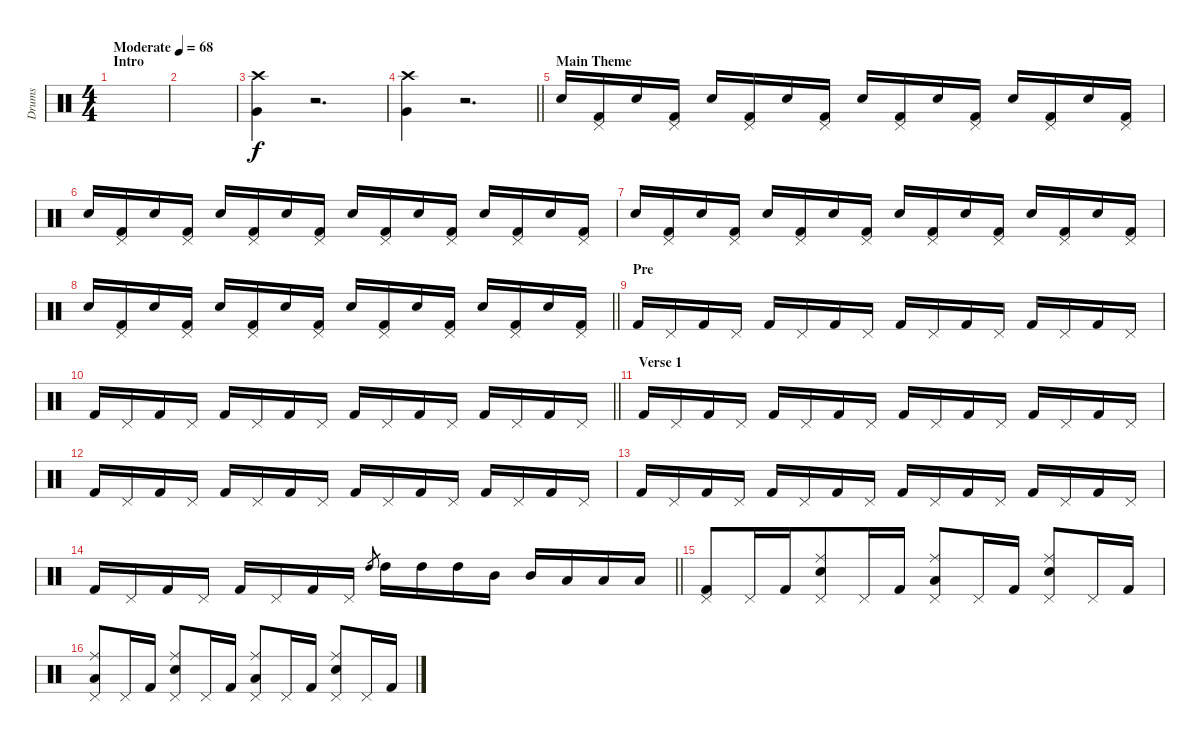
\track ("Drums" "Drums") {instrument percussion}
\staff {score}
\articulation defaults
\ts (4 4)
\section ("" "Intro")
\tempo (68 "Moderate")
\clef neutral
\ks c
|
|
("Very Low Tom (hit)" "Crash high (hit)").4 r.2{d} |
\barLineRight lightlight
("Very Low Tom (hit)" "Crash high (hit)").4 r.2{d} |
\section ("" "Main Theme")
"Snare (hit) 2".16 ("Pedal Hi-Hat (hit)" "Kick (hit) 2").16 "Snare (hit) 2".16 ("Pedal Hi-Hat (hit)" "Kick (hit) 2").16 "Snare (hit) 2".16 ("Pedal Hi-Hat (hit)" "Kick (hit) 2").16 "Snare (hit) 2".16 ("Pedal Hi-Hat (hit)" "Kick (hit) 2").16 "Snare (hit) 2".16 ("Pedal Hi-Hat (hit)" "Kick (hit) 2").16 "Snare (hit) 2".16 ("Pedal Hi-Hat (hit)" "Kick (hit) 2").16 "Snare (hit) 2".16 ("Pedal Hi-Hat (hit)" "Kick (hit) 2").16 "Snare (hit) 2".16 ("Pedal Hi-Hat (hit)" "Kick (hit) 2").16 |
"Snare (hit) 2".16 ("Pedal Hi-Hat (hit)" "Kick (hit) 2").16 "Snare (hit) 2".16 ("Pedal Hi-Hat (hit)" "Kick (hit) 2").16 "Snare (hit) 2".16 ("Pedal Hi-Hat (hit)" "Kick (hit) 2").16 "Snare (hit) 2".16 ("Pedal Hi-Hat (hit)" "Kick (hit) 2").16 "Snare (hit) 2".16 ("Pedal Hi-Hat (hit)" "Kick (hit) 2").16 "Snare (hit) 2".16 ("Pedal Hi-Hat (hit)" "Kick (hit) 2").16 "Snare (hit) 2".16 ("Pedal Hi-Hat (hit)" "Kick (hit) 2").16 "Snare (hit) 2".16 ("Pedal Hi-Hat (hit)" "Kick (hit) 2").16 |
"Snare (hit) 2".16 ("Pedal Hi-Hat (hit)" "Kick (hit) 2").16 "Snare (hit) 2".16 ("Pedal Hi-Hat (hit)" "Kick (hit) 2").16 "Snare (hit) 2".16 ("Pedal Hi-Hat (hit)" "Kick (hit) 2").16 "Snare (hit) 2".16 ("Pedal Hi-Hat (hit)" "Kick (hit) 2").16 "Snare (hit) 2".16 ("Pedal Hi-Hat (hit)" "Kick (hit) 2").16 "Snare (hit) 2".16 ("Pedal Hi-Hat (hit)" "Kick (hit) 2").16 "Snare (hit) 2".16 ("Pedal Hi-Hat (hit)" "Kick (hit) 2").16 "Snare (hit) 2".16 ("Pedal Hi-Hat (hit)" "Kick (hit) 2").16 |
\barLineRight lightlight "Snare (hit) 2".16
("Pedal Hi-Hat (hit)" "Kick (hit) 2").16 "Snare (hit) 2".16 ("Pedal Hi-Hat (hit)" "Kick (hit) 2").16 "Snare (hit) 2".16 ("Pedal Hi-Hat (hit)" "Kick (hit) 2").16 "Snare (hit) 2".16 ("Pedal Hi-Hat (hit)" "Kick (hit) 2").16 "Snare (hit) 2".16 ("Pedal Hi-Hat (hit)" "Kick (hit) 2").16 "Snare (hit) 2".16 ("Pedal Hi-Hat (hit)" "Kick (hit) 2").16 "Snare (hit) 2".16 ("Pedal Hi-Hat (hit)" "Kick (hit) 2").16 "Snare (hit) 2".16 ("Pedal Hi-Hat (hit)" "Kick (hit) 2").16 |
\section ("" "Pre")
"Kick (hit) 2".16 "Pedal Hi-Hat (hit)".16 "Kick (hit) 2".16 "Pedal Hi-Hat (hit)".16 "Kick (hit) 2".16 "Pedal Hi-Hat (hit)".16 "Kick (hit) 2".16 "Pedal Hi-Hat (hit)".16 "Kick (hit) 2".16 "Pedal Hi-Hat (hit)".16 "Kick (hit) 2".16 "Pedal Hi-Hat (hit)".16 "Kick (hit) 2".16 "Pedal Hi-Hat (hit)".16 "Kick (hit) 2".16 "Pedal Hi-Hat (hit)".16 |
\barLineRight lightlight "Kick (hit) 2".16 "Pedal Hi-Hat (hit)".16 "Kick (hit) 2".16 "Pedal Hi-Hat (hit)".16 "Kick (hit) 2".16 "Pedal Hi-Hat (hit)".16 "Kick (hit) 2".16 "Pedal Hi-Hat (hit)".16 "Kick (hit) 2".16 "Pedal Hi-Hat (hit)".16 "Kick (hit) 2".16 "Pedal Hi-Hat (hit)".16 "Kick (hit) 2".16 "Pedal Hi-Hat (hit)".16 "Kick (hit) 2".16 "Pedal Hi-Hat (hit)".16
|
\section ("" "Verse 1")
"Kick (hit) 2".16 "Pedal Hi-Hat (hit)".16 "Kick (hit) 2".16 "Pedal Hi-Hat (hit)".16 "Kick (hit) 2".16 "Pedal Hi-Hat (hit)".16 "Kick (hit) 2".16 "Pedal Hi-Hat (hit)".16 "Kick (hit) 2".16 "Pedal Hi-Hat (hit)".16 "Kick (hit) 2".16 "Pedal Hi-Hat (hit)".16 "Kick (hit) 2".16 "Pedal Hi-Hat (hit)".16 "Kick (hit) 2".16 "Pedal Hi-Hat (hit)".16 |
"Kick (hit) 2".16 "Pedal Hi-Hat (hit)".16 "Kick (hit) 2".16 "Pedal Hi-Hat (hit)".16 "Kick (hit) 2".16 "Pedal Hi-Hat (hit)".16 "Kick (hit) 2".16 "Pedal Hi-Hat (hit)".16 "Kick (hit) 2".16 "Pedal Hi-Hat (hit)".16 "Kick (hit) 2".16 "Pedal Hi-Hat (hit)".16 "Kick (hit) 2".16 "Pedal Hi-Hat (hit)".16 "Kick (hit) 2".16 "Pedal Hi-Hat (hit)".16 |
"Kick (hit) 2".16 "Pedal Hi-Hat (hit)".16 "Kick (hit) 2".16 "Pedal Hi-Hat (hit)".16 "Kick (hit) 2".16 "Pedal Hi-Hat (hit)".16 "Kick (hit) 2".16 "Pedal Hi-Hat (hit)".16 "Kick (hit) 2".16 "Pedal Hi-Hat (hit)".16 "Kick (hit) 2".16 "Pedal Hi-Hat (hit)".16 "Kick (hit) 2".16 "Pedal Hi-Hat (hit)".16 "Kick (hit) 2".16 "Pedal Hi-Hat (hit)".16 |
\barLineRight lightlight "Kick (hit) 2".16 "Pedal Hi-Hat (hit)".16 "Kick (hit) 2".16 "Pedal Hi-Hat (hit)".16 "Kick (hit) 2".16 "Pedal Hi-Hat (hit)".16 "Kick (hit) 2".16 "Pedal Hi-Hat (hit)".16 "High Tom (hit)".8{gr} "High Tom (hit)".16 "High Tom (hit)".16 "High Tom (hit)".16 "Mid Tom (hit)".16 "Mid Tom (hit)".16 "Low Tom (hit)".16 "Low Tom (hit)".16 "Low Tom (hit)".16
|
("Kick (hit) 2" "Pedal Hi-Hat (hit)").8 "Pedal Hi-Hat (hit)".16{beam merge} "Kick (hit) 2".16{beam merge} ("Electric Snare (hit)" "Ride (middle)" "Pedal Hi-Hat (hit)").8 "Pedal Hi-Hat (hit)".16 "Kick (hit) 2".16 ("Low Tom (hit)" "Ride (middle)" "Pedal Hi-Hat (hit)").8 "Pedal Hi-Hat (hit)".16 "Kick (hit) 2".16 ("Electric Snare (hit)" "Ride (middle)" "Pedal Hi-Hat (hit)").8 "Pedal Hi-Hat (hit)".16{beam merge} "Kick (hit) 2".16 |
("Low Tom (hit)" "Ride (middle)" "Pedal Hi-Hat (hit)").8 "Pedal Hi-Hat (hit)".16 "Kick (hit) 2".16 ("Electric Snare (hit)" "Ride (middle)" "Pedal Hi-Hat (hit)").8 "Pedal Hi-Hat (hit)".16{beam merge} "Kick (hit) 2".16 ("Low Tom (hit)" "Ride (middle)" "Pedal Hi-Hat (hit)").8 "Pedal Hi-Hat (hit)".16 "Kick (hit) 2".16 ("Electric Snare (hit)" "Ride (middle)" "Pedal Hi-Hat (hit)").8 "Pedal Hi-Hat (hit)".16{beam merge} "Kick (hit) 2".16
